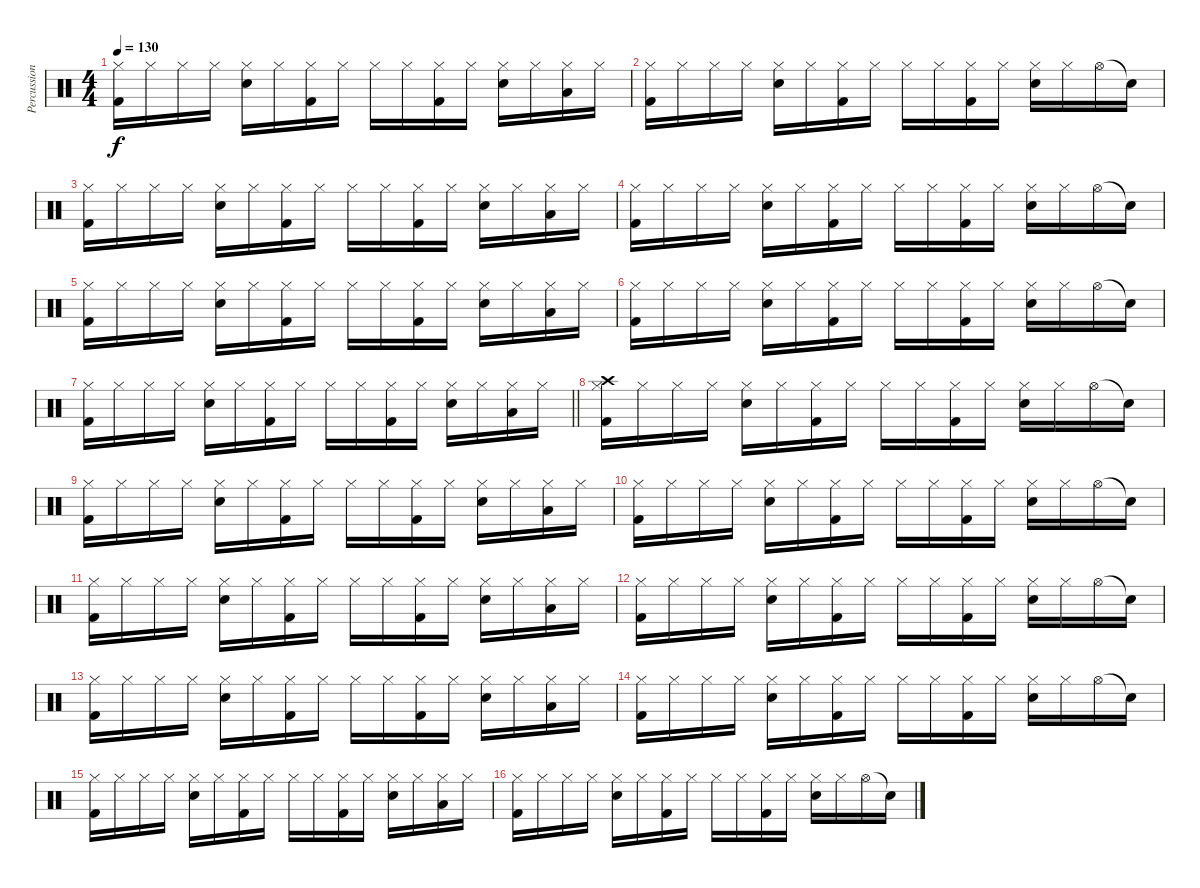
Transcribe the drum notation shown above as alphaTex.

\track ("Percussion" "Percussion") {instrument percussion}
\staff {score}
\articulation defaults
\ts (4 4)
\tempo 130
\clef neutral
\ks c
("Hi-Hat (closed)" "Kick (hit) 2").16{dy f} "Hi-Hat (closed)".16 "Hi-Hat (closed)".16 "Hi-Hat (closed)".16 ("Hi-Hat (closed)" "Snare (hit) 2").16 "Hi-Hat (closed)".16 ("Hi-Hat (closed)" "Kick (hit) 2").16 "Hi-Hat (closed)".16 "Hi-Hat (closed)".16 "Hi-Hat (closed)".16 ("Hi-Hat (closed)" "Kick (hit) 2").16 "Hi-Hat (closed)".16 ("Hi-Hat (closed)" "Snare (hit) 2").16 "Hi-Hat (closed)".16 ("Hi-Hat (closed)" "Low Tom (hit)").16 "Hi-Hat (closed)".16 |
("Hi-Hat (closed)" "Kick (hit) 2").16 "Hi-Hat (closed)".16 "Hi-Hat (closed)".16 "Hi-Hat (closed)".16 ("Hi-Hat (closed)" "Snare (hit) 2").16 "Hi-Hat (closed)".16 ("Hi-Hat (closed)" "Kick (hit) 2").16 "Hi-Hat (closed)".16 "Hi-Hat (closed)".16 "Hi-Hat (closed)".16 ("Hi-Hat (closed)" "Kick (hit) 2").16 "Hi-Hat (closed)".16 ("Hi-Hat (closed)" "Snare (hit) 2").16 "Hi-Hat (closed)".16 "Hi-Hat (open)".16 "Snare (hit)"{t}.16 |
("Hi-Hat (closed)" "Kick (hit) 2").16 "Hi-Hat (closed)".16 "Hi-Hat (closed)".16 "Hi-Hat (closed)".16 ("Hi-Hat (closed)" "Snare (hit) 2").16 "Hi-Hat (closed)".16 ("Hi-Hat (closed)" "Kick (hit) 2").16 "Hi-Hat (closed)".16 "Hi-Hat (closed)".16 "Hi-Hat (closed)".16 ("Hi-Hat (closed)" "Kick (hit) 2").16 "Hi-Hat (closed)".16 ("Hi-Hat (closed)" "Snare (hit) 2").16 "Hi-Hat (closed)".16 ("Hi-Hat (closed)" "Low Tom (hit)").16 "Hi-Hat (closed)".16 |
("Hi-Hat (closed)" "Kick (hit) 2").16 "Hi-Hat (closed)".16 "Hi-Hat (closed)".16 "Hi-Hat (closed)".16 ("Hi-Hat (closed)" "Snare (hit) 2").16 "Hi-Hat (closed)".16 ("Hi-Hat (closed)" "Kick (hit) 2").16 "Hi-Hat (closed)".16 "Hi-Hat (closed)".16 "Hi-Hat (closed)".16 ("Hi-Hat (closed)" "Kick (hit) 2").16 "Hi-Hat (closed)".16 ("Hi-Hat (closed)" "Snare (hit) 2").16 "Hi-Hat (closed)".16 "Hi-Hat (open)".16 "Snare (hit)"{t}.16 |
("Hi-Hat (closed)" "Kick (hit) 2").16 "Hi-Hat (closed)".16 "Hi-Hat (closed)".16 "Hi-Hat (closed)".16 ("Hi-Hat (closed)" "Snare (hit) 2").16 "Hi-Hat (closed)".16 ("Hi-Hat (closed)" "Kick (hit) 2").16 "Hi-Hat (closed)".16 "Hi-Hat (closed)".16 "Hi-Hat (closed)".16 ("Hi-Hat (closed)" "Kick (hit) 2").16 "Hi-Hat (closed)".16 ("Hi-Hat (closed)" "Snare (hit) 2").16 "Hi-Hat (closed)".16 ("Hi-Hat (closed)" "Low Tom (hit)").16 "Hi-Hat (closed)".16 |
("Hi-Hat (closed)" "Kick (hit) 2").16 "Hi-Hat (closed)".16 "Hi-Hat (closed)".16 "Hi-Hat (closed)".16 ("Hi-Hat (closed)" "Snare (hit) 2").16 "Hi-Hat (closed)".16 ("Hi-Hat (closed)" "Kick (hit) 2").16 "Hi-Hat (closed)".16 "Hi-Hat (closed)".16 "Hi-Hat (closed)".16 ("Hi-Hat (closed)" "Kick (hit) 2").16 "Hi-Hat (closed)".16 ("Hi-Hat (closed)" "Snare (hit) 2").16 "Hi-Hat (closed)".16 "Hi-Hat (open)".16 "Snare (hit)"{t}.16 |
\barLineRight lightlight
("Hi-Hat (closed)" "Kick (hit) 2").16 "Hi-Hat (closed)".16 "Hi-Hat (closed)".16 "Hi-Hat (closed)".16 ("Hi-Hat (closed)" "Snare (hit) 2").16 "Hi-Hat (closed)".16 ("Hi-Hat (closed)" "Kick (hit) 2").16 "Hi-Hat (closed)".16 "Hi-Hat (closed)".16 "Hi-Hat (closed)".16 ("Hi-Hat (closed)" "Kick (hit) 2").16 "Hi-Hat (closed)".16 ("Hi-Hat (closed)" "Snare (hit) 2").16 "Hi-Hat (closed)".16 ("Hi-Hat (closed)" "Low Tom (hit)").16 "Hi-Hat (closed)".16 |
("Hi-Hat (closed)" "Crash high (hit)" "Kick (hit) 2").16 "Hi-Hat (closed)".16 "Hi-Hat (closed)".16 "Hi-Hat (closed)".16 ("Hi-Hat (closed)" "Snare (hit) 2").16 "Hi-Hat (closed)".16 ("Hi-Hat (closed)" "Kick (hit) 2").16 "Hi-Hat (closed)".16 "Hi-Hat (closed)".16 "Hi-Hat (closed)".16 ("Hi-Hat (closed)" "Kick (hit) 2").16 "Hi-Hat (closed)".16 ("Hi-Hat (closed)" "Snare (hit) 2").16 "Hi-Hat (closed)".16 "Hi-Hat (open)".16 "Snare (hit)"{t}.16 |
("Hi-Hat (closed)" "Kick (hit) 2").16 "Hi-Hat (closed)".16 "Hi-Hat (closed)".16 "Hi-Hat (closed)".16 ("Hi-Hat (closed)" "Snare (hit) 2").16 "Hi-Hat (closed)".16 ("Hi-Hat (closed)" "Kick (hit) 2").16 "Hi-Hat (closed)".16 "Hi-Hat (closed)".16 "Hi-Hat (closed)".16 ("Hi-Hat (closed)" "Kick (hit) 2").16 "Hi-Hat (closed)".16 ("Hi-Hat (closed)" "Snare (hit) 2").16 "Hi-Hat (closed)".16 ("Hi-Hat (closed)" "Low Tom (hit)").16 "Hi-Hat (closed)".16 |
("Hi-Hat (closed)" "Kick (hit) 2").16 "Hi-Hat (closed)".16 "Hi-Hat (closed)".16 "Hi-Hat (closed)".16 ("Hi-Hat (closed)" "Snare (hit) 2").16 "Hi-Hat (closed)".16 ("Hi-Hat (closed)" "Kick (hit) 2").16 "Hi-Hat (closed)".16 "Hi-Hat (closed)".16 "Hi-Hat (closed)".16 ("Hi-Hat (closed)" "Kick (hit) 2").16 "Hi-Hat (closed)".16 ("Hi-Hat (closed)" "Snare (hit) 2").16 "Hi-Hat (closed)".16 "Hi-Hat (open)".16 "Snare (hit)"{t}.16 |
("Hi-Hat (closed)" "Kick (hit) 2").16 "Hi-Hat (closed)".16 "Hi-Hat (closed)".16 "Hi-Hat (closed)".16 ("Hi-Hat (closed)" "Snare (hit) 2").16 "Hi-Hat (closed)".16 ("Hi-Hat (closed)" "Kick (hit) 2").16 "Hi-Hat (closed)".16 "Hi-Hat (closed)".16 "Hi-Hat (closed)".16 ("Hi-Hat (closed)" "Kick (hit) 2").16 "Hi-Hat (closed)".16 ("Hi-Hat (closed)" "Snare (hit) 2").16 "Hi-Hat (closed)".16 ("Hi-Hat (closed)" "Low Tom (hit)").16 "Hi-Hat (closed)".16 |
("Hi-Hat (closed)" "Kick (hit) 2").16 "Hi-Hat (closed)".16 "Hi-Hat (closed)".16 "Hi-Hat (closed)".16 ("Hi-Hat (closed)" "Snare (hit) 2").16 "Hi-Hat (closed)".16 ("Hi-Hat (closed)" "Kick (hit) 2").16 "Hi-Hat (closed)".16 "Hi-Hat (closed)".16 "Hi-Hat (closed)".16 ("Hi-Hat (closed)" "Kick (hit) 2").16 "Hi-Hat (closed)".16 ("Hi-Hat (closed)" "Snare (hit) 2").16 "Hi-Hat (closed)".16 "Hi-Hat (open)".16 "Snare (hit)"{t}.16 |
("Hi-Hat (closed)" "Kick (hit) 2").16 "Hi-Hat (closed)".16 "Hi-Hat (closed)".16 "Hi-Hat (closed)".16 ("Hi-Hat (closed)" "Snare (hit) 2").16 "Hi-Hat (closed)".16 ("Hi-Hat (closed)" "Kick (hit) 2").16 "Hi-Hat (closed)".16 "Hi-Hat (closed)".16 "Hi-Hat (closed)".16 ("Hi-Hat (closed)" "Kick (hit) 2").16 "Hi-Hat (closed)".16 ("Hi-Hat (closed)" "Snare (hit) 2").16 "Hi-Hat (closed)".16 ("Hi-Hat (closed)" "Low Tom (hit)").16 "Hi-Hat (closed)".16 |
("Hi-Hat (closed)" "Kick (hit) 2").16 "Hi-Hat (closed)".16 "Hi-Hat (closed)".16 "Hi-Hat (closed)".16 ("Hi-Hat (closed)" "Snare (hit) 2").16 "Hi-Hat (closed)".16 ("Hi-Hat (closed)" "Kick (hit) 2").16 "Hi-Hat (closed)".16 "Hi-Hat (closed)".16 "Hi-Hat (closed)".16 ("Hi-Hat (closed)" "Kick (hit) 2").16 "Hi-Hat (closed)".16 ("Hi-Hat (closed)" "Snare (hit) 2").16 "Hi-Hat (closed)".16 "Hi-Hat (open)".16 "Snare (hit)"{t}.16 |
("Hi-Hat (closed)" "Kick (hit) 2").16 "Hi-Hat (closed)".16 "Hi-Hat (closed)".16 "Hi-Hat (closed)".16 ("Hi-Hat (closed)" "Snare (hit) 2").16 "Hi-Hat (closed)".16 ("Hi-Hat (closed)" "Kick (hit) 2").16 "Hi-Hat (closed)".16 "Hi-Hat (closed)".16 "Hi-Hat (closed)".16 ("Hi-Hat (closed)" "Kick (hit) 2").16 "Hi-Hat (closed)".16 ("Hi-Hat (closed)" "Snare (hit) 2").16 "Hi-Hat (closed)".16 ("Hi-Hat (closed)" "Low Tom (hit)").16 "Hi-Hat (closed)".16 |
("Hi-Hat (closed)" "Kick (hit) 2").16 "Hi-Hat (closed)".16 "Hi-Hat (closed)".16 "Hi-Hat (closed)".16 ("Hi-Hat (closed)" "Snare (hit) 2").16 "Hi-Hat (closed)".16 ("Hi-Hat (closed)" "Kick (hit) 2").16 "Hi-Hat (closed)".16 "Hi-Hat (closed)".16 "Hi-Hat (closed)".16 ("Hi-Hat (closed)" "Kick (hit) 2").16 "Hi-Hat (closed)".16 ("Hi-Hat (closed)" "Snare (hit) 2").16 "Hi-Hat (closed)".16 "Hi-Hat (open)".16 "Snare (hit)"{t}.16
